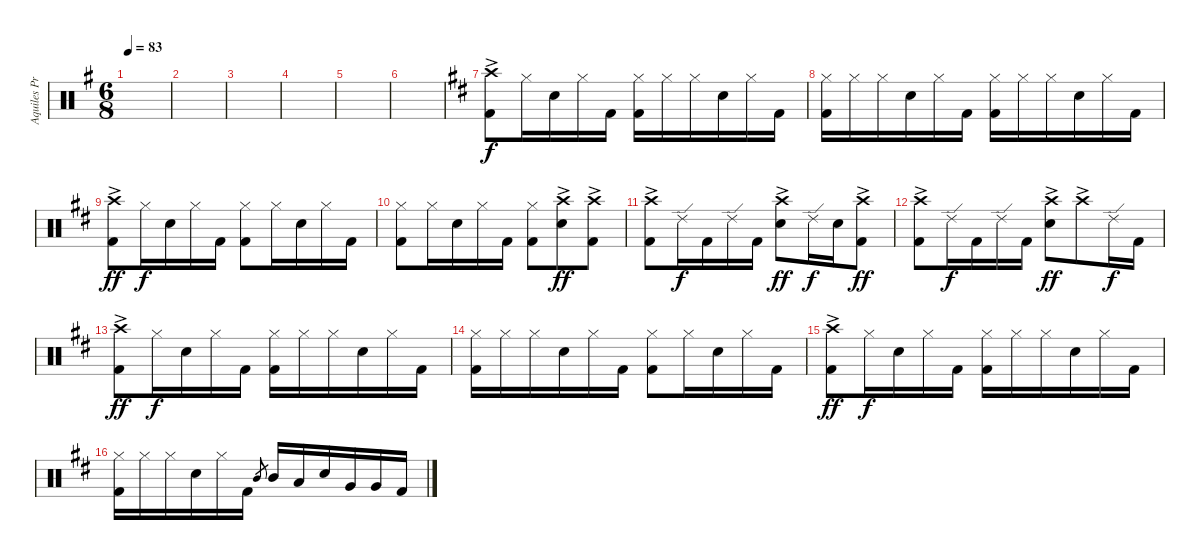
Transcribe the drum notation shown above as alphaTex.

\track ("Aquiles Priester" "Aquiles Pr") {instrument percussion}
\staff {score}
\articulation defaults
\ts (6 8)
\tempo 83
\clef neutral
\ks g
|
|
|
|
|
|
\ks d
("Crash high (hit)"{ac} "Kick (hit) 2"{ac}).8 "Hi-Hat (closed)".16{dy f} "Electric Snare (hit)".16 "Hi-Hat (closed)".16 "Kick (hit) 2".16 ("Hi-Hat (closed)" "Kick (hit) 2").16 "Hi-Hat (closed)".16 "Hi-Hat (closed)".16 "Electric Snare (hit)".16 "Hi-Hat (closed)".16 "Kick (hit) 2".16 |
("Hi-Hat (closed)" "Kick (hit) 2").16 "Hi-Hat (closed)".16 "Hi-Hat (closed)".16 "Electric Snare (hit)".16 "Hi-Hat (closed)".16 "Kick (hit) 2".16 ("Hi-Hat (closed)" "Kick (hit) 2").16 "Hi-Hat (closed)".16 "Hi-Hat (closed)".16 "Electric Snare (hit)".16 "Hi-Hat (closed)".16 "Kick (hit) 2".16 |
("Crash high (hit)"{ac} "Kick (hit) 2"{ac}).8{dy ff} "Hi-Hat (closed)".16{dy f} "Electric Snare (hit)".16 "Hi-Hat (closed)".16 "Kick (hit) 2".16 ("Hi-Hat (closed)" "Kick (hit) 2").8 "Hi-Hat (closed)".16 "Electric Snare (hit)".16 "Hi-Hat (closed)".16 "Kick (hit) 2".16 |
("Hi-Hat (closed)" "Kick (hit) 2").8 "Hi-Hat (closed)".16 "Electric Snare (hit)".16 "Hi-Hat (closed)".16 "Kick (hit) 2".16 ("Hi-Hat (closed)" "Kick (hit) 2").8 ("Crash high (hit)"{ac} "Electric Snare (hit)"{ac}).8{dy ff} ("Crash high (hit)"{ac} "Kick (hit) 2"{ac}).8 |
("Crash high (hit)"{ac} "Kick (hit) 2"{ac}).8 "Ride (edge) 2".16{dy f} "Kick (hit) 2".16 "Ride (edge) 2".16 "Kick (hit) 2".16 ("Crash high (hit)"{ac} "Electric Snare (hit)"{ac}).8{dy ff} "Ride (edge) 2".16{dy f} "Electric Snare (hit)".16 ("Crash high (hit)"{ac} "Kick (hit) 2"{ac}).8{dy ff} |
("Crash high (hit)"{ac} "Kick (hit) 2"{ac}).8 "Ride (edge) 2".16{dy f} "Kick (hit) 2".16 "Ride (edge) 2".16 "Kick (hit) 2".16 ("Crash high (hit)"{ac} "Electric Snare (hit)"{ac}).8{dy ff} "Crash high (hit)"{ac}.8 "Ride (edge) 2".16{dy f} "Kick (hit) 2".16 |
("Crash high (hit)"{ac} "Kick (hit) 2"{ac}).8{dy ff} "Hi-Hat (closed)".16{dy f} "Electric Snare (hit)".16 "Hi-Hat (closed)".16 "Kick (hit) 2".16 ("Hi-Hat (closed)" "Kick (hit) 2").16 "Hi-Hat (closed)".16 "Hi-Hat (closed)".16 "Electric Snare (hit)".16 "Hi-Hat (closed)".16 "Kick (hit) 2".16 |
("Hi-Hat (closed)" "Kick (hit) 2").16 "Hi-Hat (closed)".16 "Hi-Hat (closed)".16 "Electric Snare (hit)".16 "Hi-Hat (closed)".16 "Kick (hit) 2".16 ("Hi-Hat (closed)" "Kick (hit) 2").8 "Hi-Hat (closed)".16 "Electric Snare (hit)".16 "Hi-Hat (closed)".16 "Kick (hit) 2".16 |
("Crash high (hit)"{ac} "Kick (hit) 2"{ac}).8{dy ff} "Hi-Hat (closed)".16{dy f} "Electric Snare (hit)".16 "Hi-Hat (closed)".16 "Kick (hit) 2".16 ("Hi-Hat (closed)" "Kick (hit) 2").16 "Hi-Hat (closed)".16 "Hi-Hat (closed)".16 "Electric Snare (hit)".16 "Hi-Hat (closed)".16 "Kick (hit) 2".16 |
("Hi-Hat (closed)" "Kick (hit) 2").16 "Hi-Hat (closed)".16 "Hi-Hat (closed)".16 "Electric Snare (hit)".16 "Hi-Hat (closed)".16 "Kick (hit) 2".16 "Mid Tom (hit)".8{gr} "Mid Tom (hit)".16 "Low Tom (hit)".16 "Electric Snare (hit)".16 "Very Low Tom (hit)".16 "Very Low Tom (hit)".16 "Kick (hit) 2".16
